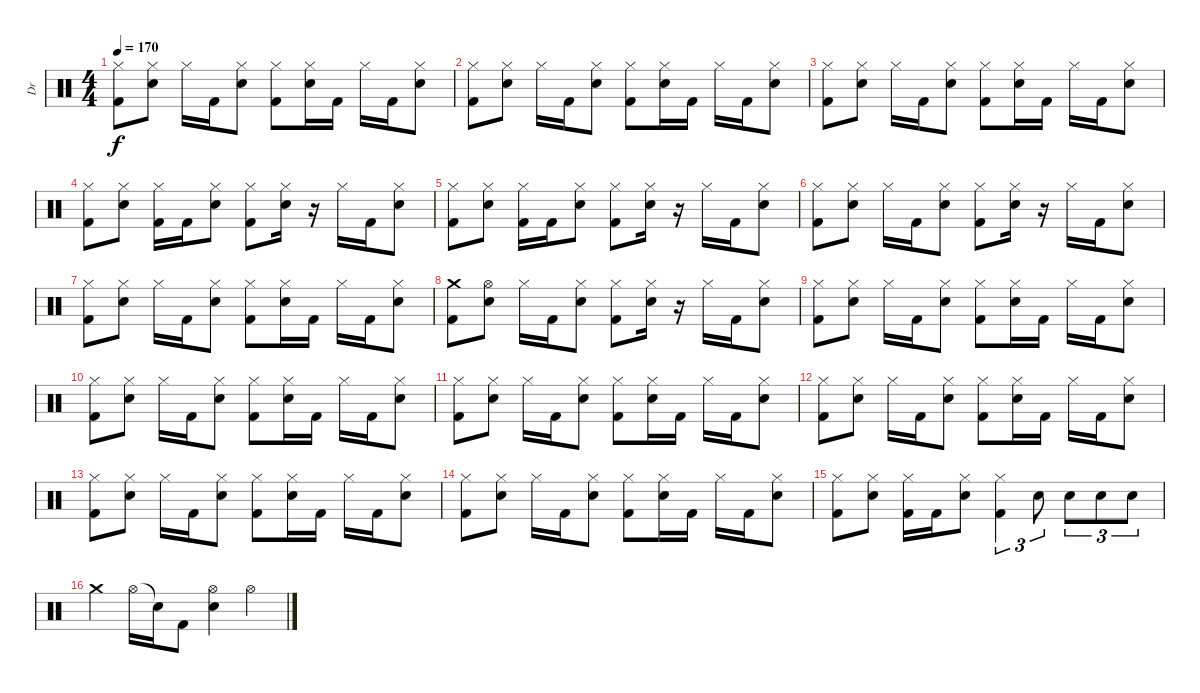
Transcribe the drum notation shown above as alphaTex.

\track ("Dr" "Dr") {instrument percussion}
\staff {score}
\articulation defaults
\ts (4 4)
\tempo 170
\clef neutral
\ks c
("Hi-Hat (closed)" "Kick (hit) 2").8{dy f} ("Hi-Hat (closed)" "Electric Snare (hit)").8 "Hi-Hat (closed)".16 "Kick (hit) 2".16 ("Hi-Hat (closed)" "Electric Snare (hit)").8 ("Hi-Hat (closed)" "Kick (hit) 2").8 ("Hi-Hat (closed)" "Electric Snare (hit)").16 "Kick (hit) 2".16 "Hi-Hat (closed)".16 "Kick (hit) 2".16 ("Hi-Hat (closed)" "Electric Snare (hit)").8 |
("Hi-Hat (closed)" "Kick (hit) 2").8 ("Hi-Hat (closed)" "Electric Snare (hit)").8 "Hi-Hat (closed)".16 "Kick (hit) 2".16 ("Hi-Hat (closed)" "Electric Snare (hit)").8 ("Hi-Hat (closed)" "Kick (hit) 2").8 ("Hi-Hat (closed)" "Electric Snare (hit)").16 "Kick (hit) 2".16 "Hi-Hat (closed)".16 "Kick (hit) 2".16 ("Hi-Hat (closed)" "Electric Snare (hit)").8 |
("Hi-Hat (closed)" "Kick (hit) 2").8 ("Hi-Hat (closed)" "Electric Snare (hit)").8 "Hi-Hat (closed)".16 "Kick (hit) 2".16 ("Hi-Hat (closed)" "Electric Snare (hit)").8 ("Hi-Hat (closed)" "Kick (hit) 2").8 ("Hi-Hat (closed)" "Electric Snare (hit)").16 "Kick (hit) 2".16 "Hi-Hat (closed)".16 "Kick (hit) 2".16 ("Hi-Hat (closed)" "Electric Snare (hit)").8 |
("Hi-Hat (closed)" "Kick (hit) 2").8 ("Hi-Hat (closed)" "Electric Snare (hit)").8 ("Hi-Hat (closed)" "Kick (hit) 2").16 "Kick (hit) 2".16 ("Hi-Hat (closed)" "Electric Snare (hit)").8 ("Hi-Hat (closed)" "Kick (hit) 2").8 ("Hi-Hat (closed)" "Electric Snare (hit)").16 r.16 "Hi-Hat (closed)".16 "Kick (hit) 2".16 ("Hi-Hat (closed)" "Electric Snare (hit)").8 |
("Hi-Hat (closed)" "Kick (hit) 2").8 ("Hi-Hat (closed)" "Electric Snare (hit)").8 ("Hi-Hat (closed)" "Kick (hit) 2").16 "Kick (hit) 2".16 ("Hi-Hat (closed)" "Electric Snare (hit)").8 ("Hi-Hat (closed)" "Kick (hit) 2").8 ("Hi-Hat (closed)" "Electric Snare (hit)").16 r.16 "Hi-Hat (closed)".16 "Kick (hit) 2".16 ("Hi-Hat (closed)" "Electric Snare (hit)").8 |
("Hi-Hat (closed)" "Kick (hit) 2").8 ("Hi-Hat (closed)" "Electric Snare (hit)").8 "Hi-Hat (closed)".16 "Kick (hit) 2".16 ("Hi-Hat (closed)" "Electric Snare (hit)").8 ("Hi-Hat (closed)" "Kick (hit) 2").8 ("Hi-Hat (closed)" "Electric Snare (hit)").16 r.16 "Hi-Hat (closed)".16 "Kick (hit) 2".16 ("Hi-Hat (closed)" "Electric Snare (hit)").8 |
("Hi-Hat (closed)" "Kick (hit) 2").8 ("Hi-Hat (closed)" "Electric Snare (hit)").8 "Hi-Hat (closed)".16 "Kick (hit) 2".16 ("Hi-Hat (closed)" "Electric Snare (hit)").8 ("Hi-Hat (closed)" "Kick (hit) 2").8 ("Hi-Hat (closed)" "Electric Snare (hit)").16 "Kick (hit) 2".16 "Hi-Hat (closed)".16 "Kick (hit) 2".16 ("Hi-Hat (closed)" "Electric Snare (hit)").8 |
("Crash medium (hit)" "Kick (hit) 2").8 ("Hi-Hat (open)" "Electric Snare (hit)").8 "Hi-Hat (closed)".16 "Kick (hit) 2".16 ("Hi-Hat (closed)" "Electric Snare (hit)").8 ("Hi-Hat (closed)" "Kick (hit) 2").8 ("Hi-Hat (closed)" "Electric Snare (hit)").16 r.16 "Hi-Hat (closed)".16 "Kick (hit) 2".16 ("Hi-Hat (closed)" "Electric Snare (hit)").8 |
("Hi-Hat (closed)" "Kick (hit) 2").8 ("Hi-Hat (closed)" "Electric Snare (hit)").8 "Hi-Hat (closed)".16 "Kick (hit) 2".16 ("Hi-Hat (closed)" "Electric Snare (hit)").8 ("Hi-Hat (closed)" "Kick (hit) 2").8 ("Hi-Hat (closed)" "Electric Snare (hit)").16 "Kick (hit) 2".16 "Hi-Hat (closed)".16 "Kick (hit) 2".16 ("Hi-Hat (closed)" "Electric Snare (hit)").8 |
("Hi-Hat (closed)" "Kick (hit) 2").8 ("Hi-Hat (closed)" "Electric Snare (hit)").8 "Hi-Hat (closed)".16 "Kick (hit) 2".16 ("Hi-Hat (closed)" "Electric Snare (hit)").8 ("Hi-Hat (closed)" "Kick (hit) 2").8 ("Hi-Hat (closed)" "Electric Snare (hit)").16 "Kick (hit) 2".16 "Hi-Hat (closed)".16 "Kick (hit) 2".16 ("Hi-Hat (closed)" "Electric Snare (hit)").8 |
("Hi-Hat (closed)" "Kick (hit) 2").8 ("Hi-Hat (closed)" "Electric Snare (hit)").8 "Hi-Hat (closed)".16 "Kick (hit) 2".16 ("Hi-Hat (closed)" "Electric Snare (hit)").8 ("Hi-Hat (closed)" "Kick (hit) 2").8 ("Hi-Hat (closed)" "Electric Snare (hit)").16 "Kick (hit) 2".16 "Hi-Hat (closed)".16 "Kick (hit) 2".16 ("Hi-Hat (closed)" "Electric Snare (hit)").8 |
("Hi-Hat (closed)" "Kick (hit) 2").8 ("Hi-Hat (closed)" "Electric Snare (hit)").8 "Hi-Hat (closed)".16 "Kick (hit) 2".16 ("Hi-Hat (closed)" "Electric Snare (hit)").8 ("Hi-Hat (closed)" "Kick (hit) 2").8 ("Hi-Hat (closed)" "Electric Snare (hit)").16 "Kick (hit) 2".16 "Hi-Hat (closed)".16 "Kick (hit) 2".16 ("Hi-Hat (closed)" "Electric Snare (hit)").8 |
("Hi-Hat (closed)" "Kick (hit) 2").8 ("Hi-Hat (closed)" "Electric Snare (hit)").8 "Hi-Hat (closed)".16 "Kick (hit) 2".16 ("Hi-Hat (closed)" "Electric Snare (hit)").8 ("Hi-Hat (closed)" "Kick (hit) 2").8 ("Hi-Hat (closed)" "Electric Snare (hit)").16 "Kick (hit) 2".16 "Hi-Hat (closed)".16 "Kick (hit) 2".16 ("Hi-Hat (closed)" "Electric Snare (hit)").8 |
("Hi-Hat (closed)" "Kick (hit) 2").8 ("Hi-Hat (closed)" "Electric Snare (hit)").8 "Hi-Hat (closed)".16 "Kick (hit) 2".16 ("Hi-Hat (closed)" "Electric Snare (hit)").8 ("Hi-Hat (closed)" "Kick (hit) 2").8 ("Hi-Hat (closed)" "Electric Snare (hit)").16 "Kick (hit) 2".16 "Hi-Hat (closed)".16 "Kick (hit) 2".16 ("Hi-Hat (closed)" "Electric Snare (hit)").8 |
("Hi-Hat (closed)" "Kick (hit) 2").8 ("Hi-Hat (closed)" "Electric Snare (hit)").8 ("Hi-Hat (closed)" "Kick (hit) 2").16 "Kick (hit) 2".16 ("Hi-Hat (closed)" "Electric Snare (hit)").8 ("Hi-Hat (closed)" "Kick (hit) 2").4{tu (3 2)} "Electric Snare (hit)".8{tu (3 2)} "Electric Snare (hit)".8{tu (3 2)} "Electric Snare (hit)".8{tu (3 2)} "Electric Snare (hit)".8{tu (3 2)} |
"Crash medium (hit)".4 "Hi-Hat (open)".16 "Snare (hit)"{t}.16 "Kick (hit) 2".8 ("Hi-Hat (open)" "Electric Snare (hit)").4 "Hi-Hat (open)".4
